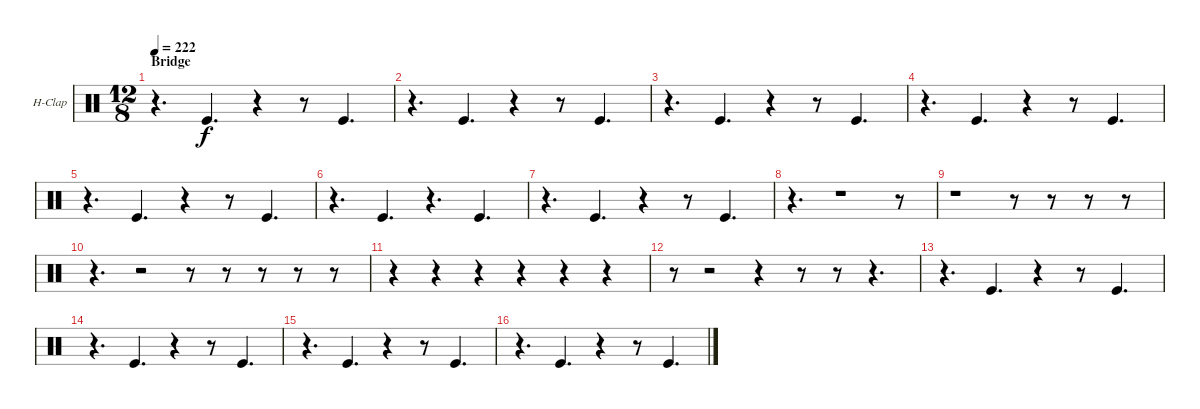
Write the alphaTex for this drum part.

\bracketExtendMode nobrackets
\firstSystemTrackNameOrientation horizontal
\otherSystemsTrackNameOrientation horizontal
\track ("Hand Clap" "H-Clap") {instrument percussion}
\staff {score}
\articulation defaults
\ts (12 8)
\section ("" "Bridge")
\tempo 222
\clef neutral
\ks c
r.4{d dy f} "Kick (hit)".4{d} r.4 r.8 "Kick (hit)".4{d} |
r.4{d} "Kick (hit)".4{d} r.4 r.8 "Kick (hit)".4{d} |
r.4{d} "Kick (hit)".4{d} r.4 r.8 "Kick (hit)".4{d} |
r.4{d} "Kick (hit)".4{d} r.4 r.8 "Kick (hit)".4{d} |
r.4{d} "Kick (hit)".4{d} r.4 r.8 "Kick (hit)".4{d} |
r.4{d} "Kick (hit)".4{d} r.4{d} "Kick (hit)".4{d} |
r.4{d} "Kick (hit)".4{d} r.4 r.8 "Kick (hit)".4{d} |
r.4{d} r.1 r.8 |
r.1 r.8 r.8 r.8 r.8 |
r.4{d} r.2 r.8 r.8 r.8 r.8 r.8 |
r.4 r.4 r.4 r.4 r.4 r.4 |
r.8 r.2 r.4 r.8 r.8 r.4{d} |
r.4{d} "Kick (hit)".4{d} r.4 r.8 "Kick (hit)".4{d} |
r.4{d} "Kick (hit)".4{d} r.4 r.8 "Kick (hit)".4{d} |
r.4{d} "Kick (hit)".4{d} r.4 r.8 "Kick (hit)".4{d} |
r.4{d} "Kick (hit)".4{d} r.4 r.8 "Kick (hit)".4{d}
